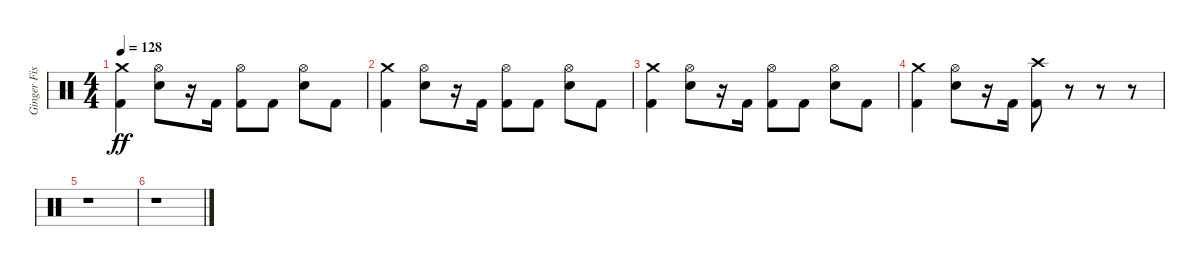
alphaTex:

\track ("Ginger Fish" "Ginger Fis") {instrument percussion}
\staff {score}
\articulation defaults
\ts (4 4)
\tempo 128
\clef neutral
\ks c
("Crash medium (hit)" "Kick (hit) 2").4{dy ff} ("Hi-Hat (open)" "Electric Snare (hit)").8 r.16 "Kick (hit) 2".16 ("Hi-Hat (open)" "Kick (hit) 2").8 "Kick (hit) 2".8 ("Hi-Hat (open)" "Electric Snare (hit)").8 "Kick (hit) 2".8 |
("Crash medium (hit)" "Kick (hit) 2").4 ("Hi-Hat (open)" "Electric Snare (hit)").8 r.16 "Kick (hit) 2".16 ("Hi-Hat (open)" "Kick (hit) 2").8 "Kick (hit) 2".8 ("Hi-Hat (open)" "Electric Snare (hit)").8 "Kick (hit) 2".8 |
("Crash medium (hit)" "Kick (hit) 2").4 ("Hi-Hat (open)" "Electric Snare (hit)").8 r.16 "Kick (hit) 2".16 ("Hi-Hat (open)" "Kick (hit) 2").8 "Kick (hit) 2".8 ("Hi-Hat (open)" "Electric Snare (hit)").8 "Kick (hit) 2".8 |
("Crash medium (hit)" "Kick (hit) 2").4 ("Hi-Hat (open)" "Electric Snare (hit)").8 r.16 "Kick (hit) 2".16 ("Crash high (hit)" "Kick (hit) 2").8 r.8 r.8 r.8 |
r.1 |
r.1
